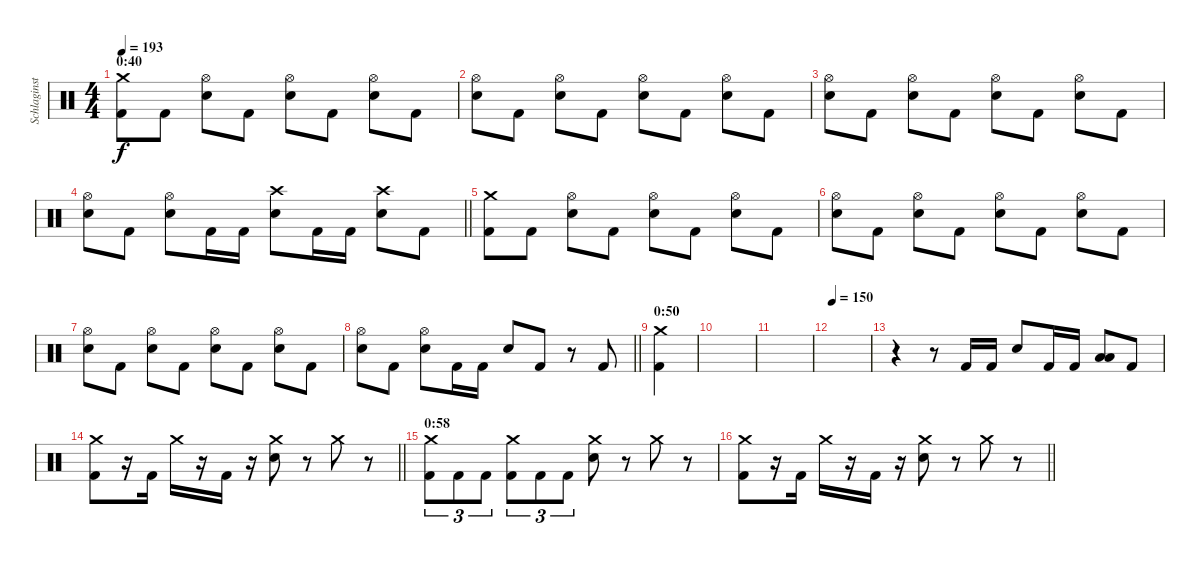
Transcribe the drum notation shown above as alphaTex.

\track ("Schlaginstrumente - Auswahl" "Schlaginst") {instrument percussion}
\staff {score}
\articulation defaults
\ts (4 4)
\section ("" "0:40")
\tempo 193
\clef neutral
\ks c
("Crash medium (hit)" "Kick (hit) 2").8{dy f} "Kick (hit) 2".8 ("Hi-Hat (open)" "Electric Snare (hit)").8 "Kick (hit) 2".8 ("Hi-Hat (open)" "Electric Snare (hit)").8 "Kick (hit) 2".8 ("Hi-Hat (open)" "Electric Snare (hit)").8 "Kick (hit) 2".8 |
("Hi-Hat (open)" "Electric Snare (hit)").8 "Kick (hit) 2".8 ("Hi-Hat (open)" "Electric Snare (hit)").8 "Kick (hit) 2".8 ("Hi-Hat (open)" "Electric Snare (hit)").8 "Kick (hit) 2".8 ("Hi-Hat (open)" "Electric Snare (hit)").8 "Kick (hit) 2".8 |
("Hi-Hat (open)" "Electric Snare (hit)").8 "Kick (hit) 2".8 ("Hi-Hat (open)" "Electric Snare (hit)").8 "Kick (hit) 2".8 ("Hi-Hat (open)" "Electric Snare (hit)").8 "Kick (hit) 2".8 ("Hi-Hat (open)" "Electric Snare (hit)").8 "Kick (hit) 2".8 |
\barLineRight lightlight
("Hi-Hat (open)" "Electric Snare (hit)").8 "Kick (hit) 2".8 ("Hi-Hat (open)" "Electric Snare (hit)").8 "Kick (hit) 2".16 "Kick (hit) 2".16 ("Crash high (hit)" "Electric Snare (hit)").8 "Kick (hit) 2".16 "Kick (hit) 2".16 ("Crash high (hit)" "Electric Snare (hit)").8 "Kick (hit) 2".8 |
("Crash medium (hit)" "Kick (hit) 2").8 "Kick (hit) 2".8 ("Hi-Hat (open)" "Electric Snare (hit)").8 "Kick (hit) 2".8 ("Hi-Hat (open)" "Electric Snare (hit)").8 "Kick (hit) 2".8 ("Hi-Hat (open)" "Electric Snare (hit)").8 "Kick (hit) 2".8 |
("Hi-Hat (open)" "Electric Snare (hit)").8 "Kick (hit) 2".8 ("Hi-Hat (open)" "Electric Snare (hit)").8 "Kick (hit) 2".8 ("Hi-Hat (open)" "Electric Snare (hit)").8 "Kick (hit) 2".8 ("Hi-Hat (open)" "Electric Snare (hit)").8 "Kick (hit) 2".8 |
("Hi-Hat (open)" "Electric Snare (hit)").8 "Kick (hit) 2".8 ("Hi-Hat (open)" "Electric Snare (hit)").8 "Kick (hit) 2".8 ("Hi-Hat (open)" "Electric Snare (hit)").8 "Kick (hit) 2".8 ("Hi-Hat (open)" "Electric Snare (hit)").8 "Kick (hit) 2".8 |
\barLineRight lightlight
("Hi-Hat (open)" "Electric Snare (hit)").8 "Kick (hit) 2".8 ("Hi-Hat (open)" "Electric Snare (hit)").8 "Kick (hit) 2".16 "Kick (hit) 2".16 "Electric Snare (hit)".8 "Kick (hit) 2".8 r.8 "Kick (hit) 2".8 |
\section ("" "0:50")
("Crash medium (hit)" "Kick (hit) 2").4 |
|
|
\tempo 150
|
r.4 r.8 "Kick (hit) 2".16 "Kick (hit) 2".16 "Electric Snare (hit)".8 "Kick (hit) 2".16 "Kick (hit) 2".16 ("Low Tom (hit)" "Low Floor Tom (hit)").8 "Kick (hit) 2".8 |
\barLineRight lightlight
("Crash medium (hit)" "Kick (hit) 2").8 r.16 "Kick (hit) 2".16 "Crash medium (hit)".16 r.16 "Kick (hit) 2".16 r.16 ("Crash medium (hit)" "Electric Snare (hit)").8 r.8 "Crash medium (hit)".8 r.8 |
\section ("" "0:58")
("Crash medium (hit)" "Kick (hit) 2").8{tu (3 2)} "Kick (hit) 2".8{tu (3 2)} "Kick (hit) 2".8{tu (3 2)} ("Crash medium (hit)" "Kick (hit) 2").8{tu (3 2)} "Kick (hit) 2".8{tu (3 2)} "Kick (hit) 2".8{tu (3 2)} ("Crash medium (hit)" "Electric Snare (hit)").8 r.8 "Crash medium (hit)".8 r.8 |
\barLineRight lightlight
("Crash medium (hit)" "Kick (hit) 2").8 r.16 "Kick (hit) 2".16 "Crash medium (hit)".16 r.16 "Kick (hit) 2".16 r.16 ("Crash medium (hit)" "Electric Snare (hit)").8 r.8 "Crash medium (hit)".8 r.8
